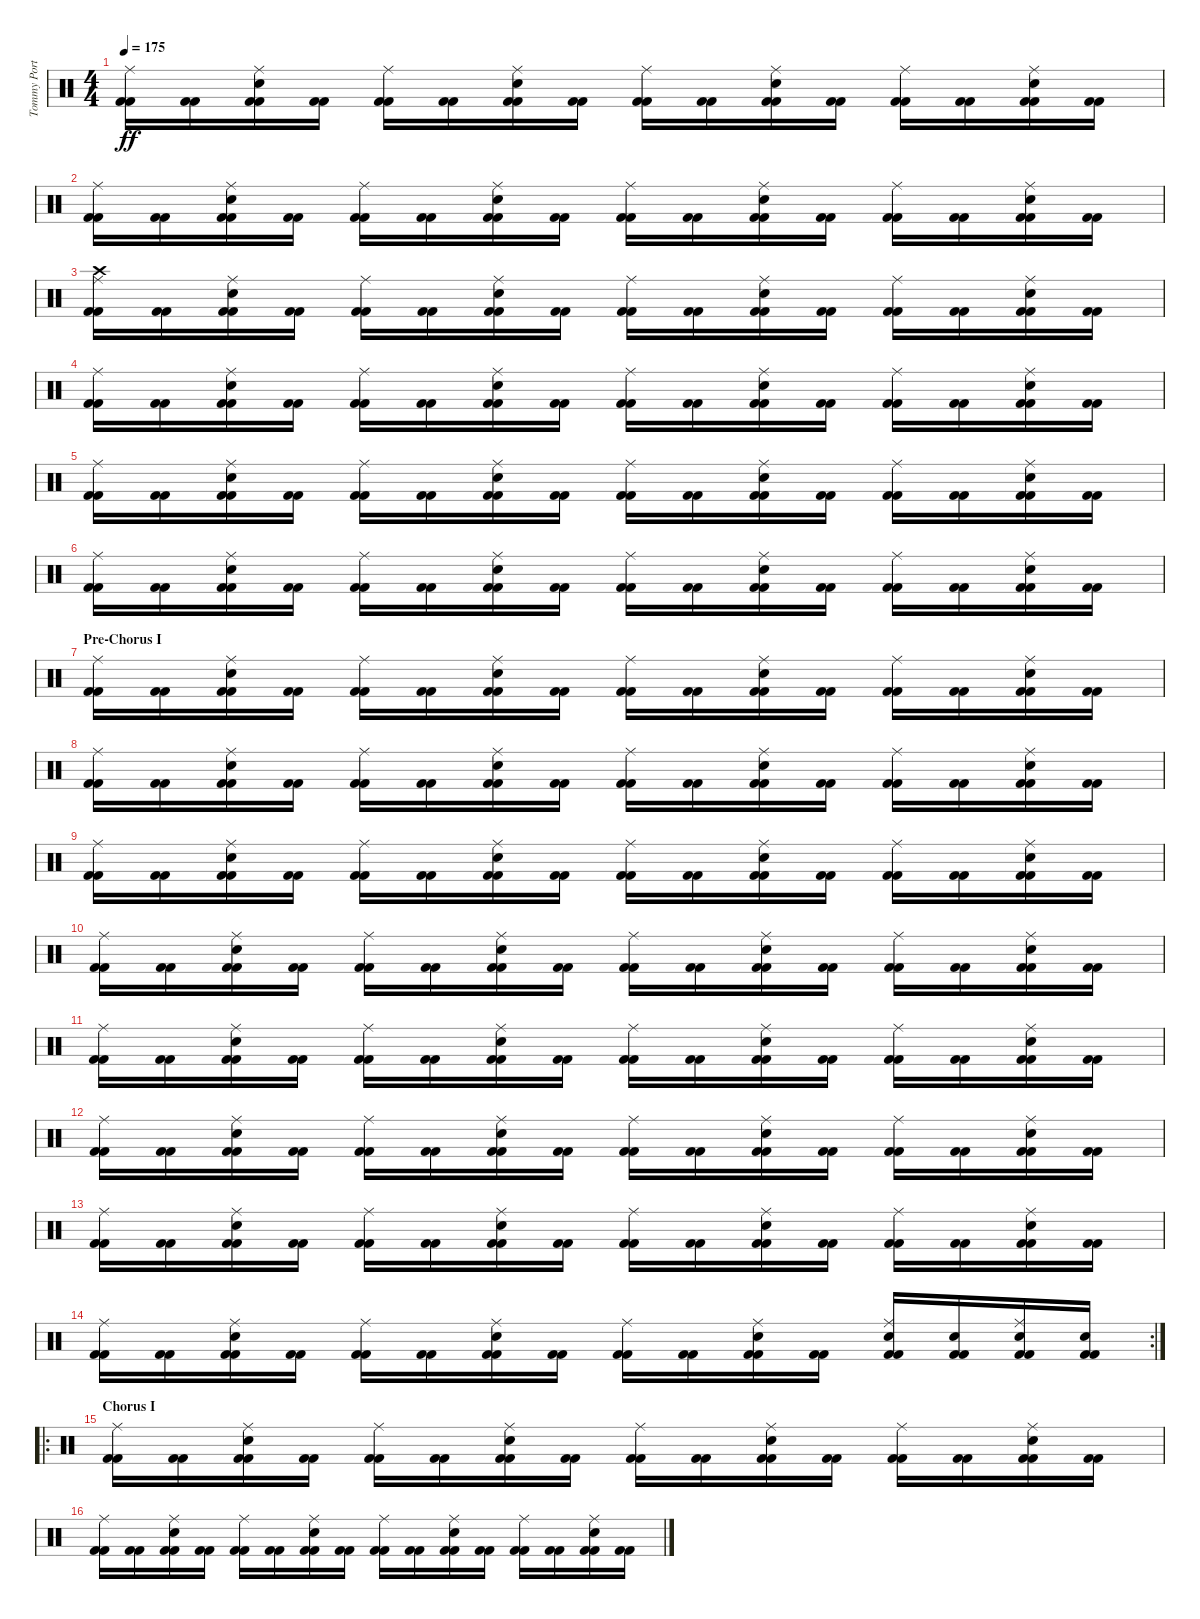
\track ("Tommy Portimo" "Tommy Port") {instrument percussion}
\staff {score}
\articulation defaults
\ts (4 4)
\tempo 175
\clef neutral
\ks c
("Kick (hit) 2" "Kick (hit) 2" "Ride (middle)").16{dy ff} ("Kick (hit) 2" "Kick (hit) 2").16 ("Kick (hit) 2" "Kick (hit) 2" "Ride (middle)" "Electric Snare (hit)").16 ("Kick (hit) 2" "Kick (hit) 2").16 ("Kick (hit) 2" "Kick (hit) 2" "Ride (middle)").16 ("Kick (hit) 2" "Kick (hit) 2").16 ("Kick (hit) 2" "Kick (hit) 2" "Ride (middle)" "Electric Snare (hit)").16 ("Kick (hit) 2" "Kick (hit) 2").16 ("Kick (hit) 2" "Kick (hit) 2" "Ride (middle)").16 ("Kick (hit) 2" "Kick (hit) 2").16 ("Kick (hit) 2" "Kick (hit) 2" "Ride (middle)" "Electric Snare (hit)").16 ("Kick (hit) 2" "Kick (hit) 2").16 ("Kick (hit) 2" "Kick (hit) 2" "Ride (middle)").16 ("Kick (hit) 2" "Kick (hit) 2").16 ("Kick (hit) 2" "Kick (hit) 2" "Ride (middle)" "Electric Snare (hit)").16 ("Kick (hit) 2" "Kick (hit) 2").16 |
("Kick (hit) 2" "Kick (hit) 2" "Ride (middle)").16 ("Kick (hit) 2" "Kick (hit) 2").16 ("Kick (hit) 2" "Kick (hit) 2" "Ride (middle)" "Electric Snare (hit)").16 ("Kick (hit) 2" "Kick (hit) 2").16 ("Kick (hit) 2" "Kick (hit) 2" "Ride (middle)").16 ("Kick (hit) 2" "Kick (hit) 2").16 ("Kick (hit) 2" "Kick (hit) 2" "Ride (middle)" "Electric Snare (hit)").16 ("Kick (hit) 2" "Kick (hit) 2").16 ("Kick (hit) 2" "Kick (hit) 2" "Ride (middle)").16 ("Kick (hit) 2" "Kick (hit) 2").16 ("Kick (hit) 2" "Kick (hit) 2" "Ride (middle)" "Electric Snare (hit)").16 ("Kick (hit) 2" "Kick (hit) 2").16 ("Kick (hit) 2" "Kick (hit) 2" "Ride (middle)").16 ("Kick (hit) 2" "Kick (hit) 2").16 ("Kick (hit) 2" "Kick (hit) 2" "Ride (middle)" "Electric Snare (hit)").16 ("Kick (hit) 2" "Kick (hit) 2").16 |
("Kick (hit) 2" "Kick (hit) 2" "Ride (middle)" "Crash high (hit)").16 ("Kick (hit) 2" "Kick (hit) 2").16 ("Kick (hit) 2" "Kick (hit) 2" "Ride (middle)" "Electric Snare (hit)").16 ("Kick (hit) 2" "Kick (hit) 2").16 ("Kick (hit) 2" "Kick (hit) 2" "Ride (middle)").16 ("Kick (hit) 2" "Kick (hit) 2").16 ("Kick (hit) 2" "Kick (hit) 2" "Ride (middle)" "Electric Snare (hit)").16 ("Kick (hit) 2" "Kick (hit) 2").16 ("Kick (hit) 2" "Kick (hit) 2" "Ride (middle)").16 ("Kick (hit) 2" "Kick (hit) 2").16 ("Kick (hit) 2" "Kick (hit) 2" "Ride (middle)" "Electric Snare (hit)").16 ("Kick (hit) 2" "Kick (hit) 2").16 ("Kick (hit) 2" "Kick (hit) 2" "Ride (middle)").16 ("Kick (hit) 2" "Kick (hit) 2").16 ("Kick (hit) 2" "Kick (hit) 2" "Ride (middle)" "Electric Snare (hit)").16 ("Kick (hit) 2" "Kick (hit) 2").16 |
("Kick (hit) 2" "Kick (hit) 2" "Ride (middle)").16 ("Kick (hit) 2" "Kick (hit) 2").16 ("Kick (hit) 2" "Kick (hit) 2" "Ride (middle)" "Electric Snare (hit)").16 ("Kick (hit) 2" "Kick (hit) 2").16 ("Kick (hit) 2" "Kick (hit) 2" "Ride (middle)").16 ("Kick (hit) 2" "Kick (hit) 2").16 ("Kick (hit) 2" "Kick (hit) 2" "Ride (middle)" "Electric Snare (hit)").16 ("Kick (hit) 2" "Kick (hit) 2").16 ("Kick (hit) 2" "Kick (hit) 2" "Ride (middle)").16 ("Kick (hit) 2" "Kick (hit) 2").16 ("Kick (hit) 2" "Kick (hit) 2" "Ride (middle)" "Electric Snare (hit)").16 ("Kick (hit) 2" "Kick (hit) 2").16 ("Kick (hit) 2" "Kick (hit) 2" "Ride (middle)").16 ("Kick (hit) 2" "Kick (hit) 2").16 ("Kick (hit) 2" "Kick (hit) 2" "Ride (middle)" "Electric Snare (hit)").16 ("Kick (hit) 2" "Kick (hit) 2").16 |
("Kick (hit) 2" "Kick (hit) 2" "Ride (middle)").16 ("Kick (hit) 2" "Kick (hit) 2").16 ("Kick (hit) 2" "Kick (hit) 2" "Ride (middle)" "Electric Snare (hit)").16 ("Kick (hit) 2" "Kick (hit) 2").16 ("Kick (hit) 2" "Kick (hit) 2" "Ride (middle)").16 ("Kick (hit) 2" "Kick (hit) 2").16 ("Kick (hit) 2" "Kick (hit) 2" "Ride (middle)" "Electric Snare (hit)").16 ("Kick (hit) 2" "Kick (hit) 2").16 ("Kick (hit) 2" "Kick (hit) 2" "Ride (middle)").16 ("Kick (hit) 2" "Kick (hit) 2").16 ("Kick (hit) 2" "Kick (hit) 2" "Ride (middle)" "Electric Snare (hit)").16 ("Kick (hit) 2" "Kick (hit) 2").16 ("Kick (hit) 2" "Kick (hit) 2" "Ride (middle)").16 ("Kick (hit) 2" "Kick (hit) 2").16 ("Kick (hit) 2" "Kick (hit) 2" "Ride (middle)" "Electric Snare (hit)").16 ("Kick (hit) 2" "Kick (hit) 2").16 |
("Kick (hit) 2" "Kick (hit) 2" "Ride (middle)").16 ("Kick (hit) 2" "Kick (hit) 2").16 ("Kick (hit) 2" "Kick (hit) 2" "Ride (middle)" "Electric Snare (hit)").16 ("Kick (hit) 2" "Kick (hit) 2").16 ("Kick (hit) 2" "Kick (hit) 2" "Ride (middle)").16 ("Kick (hit) 2" "Kick (hit) 2").16 ("Kick (hit) 2" "Kick (hit) 2" "Ride (middle)" "Electric Snare (hit)").16 ("Kick (hit) 2" "Kick (hit) 2").16 ("Kick (hit) 2" "Kick (hit) 2" "Ride (middle)").16 ("Kick (hit) 2" "Kick (hit) 2").16 ("Kick (hit) 2" "Kick (hit) 2" "Ride (middle)" "Electric Snare (hit)").16 ("Kick (hit) 2" "Kick (hit) 2").16 ("Kick (hit) 2" "Kick (hit) 2" "Ride (middle)").16 ("Kick (hit) 2" "Kick (hit) 2").16 ("Kick (hit) 2" "Kick (hit) 2" "Ride (middle)" "Electric Snare (hit)").16 ("Kick (hit) 2" "Kick (hit) 2").16 |
\section ("" "Pre-Chorus I")
("Kick (hit) 2" "Kick (hit) 2" "Ride (middle)").16 ("Kick (hit) 2" "Kick (hit) 2").16 ("Kick (hit) 2" "Kick (hit) 2" "Ride (middle)" "Electric Snare (hit)").16 ("Kick (hit) 2" "Kick (hit) 2").16 ("Kick (hit) 2" "Kick (hit) 2" "Ride (middle)").16 ("Kick (hit) 2" "Kick (hit) 2").16 ("Kick (hit) 2" "Kick (hit) 2" "Ride (middle)" "Electric Snare (hit)").16 ("Kick (hit) 2" "Kick (hit) 2").16 ("Kick (hit) 2" "Kick (hit) 2" "Ride (middle)").16 ("Kick (hit) 2" "Kick (hit) 2").16 ("Kick (hit) 2" "Kick (hit) 2" "Ride (middle)" "Electric Snare (hit)").16 ("Kick (hit) 2" "Kick (hit) 2").16 ("Kick (hit) 2" "Kick (hit) 2" "Ride (middle)").16 ("Kick (hit) 2" "Kick (hit) 2").16 ("Kick (hit) 2" "Kick (hit) 2" "Ride (middle)" "Electric Snare (hit)").16 ("Kick (hit) 2" "Kick (hit) 2").16 |
("Kick (hit) 2" "Kick (hit) 2" "Ride (middle)").16 ("Kick (hit) 2" "Kick (hit) 2").16 ("Kick (hit) 2" "Kick (hit) 2" "Ride (middle)" "Electric Snare (hit)").16 ("Kick (hit) 2" "Kick (hit) 2").16 ("Kick (hit) 2" "Kick (hit) 2" "Ride (middle)").16 ("Kick (hit) 2" "Kick (hit) 2").16 ("Kick (hit) 2" "Kick (hit) 2" "Ride (middle)" "Electric Snare (hit)").16 ("Kick (hit) 2" "Kick (hit) 2").16 ("Kick (hit) 2" "Kick (hit) 2" "Ride (middle)").16 ("Kick (hit) 2" "Kick (hit) 2").16 ("Kick (hit) 2" "Kick (hit) 2" "Ride (middle)" "Electric Snare (hit)").16 ("Kick (hit) 2" "Kick (hit) 2").16 ("Kick (hit) 2" "Kick (hit) 2" "Ride (middle)").16 ("Kick (hit) 2" "Kick (hit) 2").16 ("Kick (hit) 2" "Kick (hit) 2" "Ride (middle)" "Electric Snare (hit)").16 ("Kick (hit) 2" "Kick (hit) 2").16 |
("Kick (hit) 2" "Kick (hit) 2" "Ride (middle)").16 ("Kick (hit) 2" "Kick (hit) 2").16 ("Kick (hit) 2" "Kick (hit) 2" "Ride (middle)" "Electric Snare (hit)").16 ("Kick (hit) 2" "Kick (hit) 2").16 ("Kick (hit) 2" "Kick (hit) 2" "Ride (middle)").16 ("Kick (hit) 2" "Kick (hit) 2").16 ("Kick (hit) 2" "Kick (hit) 2" "Ride (middle)" "Electric Snare (hit)").16 ("Kick (hit) 2" "Kick (hit) 2").16 ("Kick (hit) 2" "Kick (hit) 2" "Ride (middle)").16 ("Kick (hit) 2" "Kick (hit) 2").16 ("Kick (hit) 2" "Kick (hit) 2" "Ride (middle)" "Electric Snare (hit)").16 ("Kick (hit) 2" "Kick (hit) 2").16 ("Kick (hit) 2" "Kick (hit) 2" "Ride (middle)").16 ("Kick (hit) 2" "Kick (hit) 2").16 ("Kick (hit) 2" "Kick (hit) 2" "Ride (middle)" "Electric Snare (hit)").16 ("Kick (hit) 2" "Kick (hit) 2").16 |
("Kick (hit) 2" "Kick (hit) 2" "Ride (middle)").16 ("Kick (hit) 2" "Kick (hit) 2").16 ("Kick (hit) 2" "Kick (hit) 2" "Ride (middle)" "Electric Snare (hit)").16 ("Kick (hit) 2" "Kick (hit) 2").16 ("Kick (hit) 2" "Kick (hit) 2" "Ride (middle)").16 ("Kick (hit) 2" "Kick (hit) 2").16 ("Kick (hit) 2" "Kick (hit) 2" "Ride (middle)" "Electric Snare (hit)").16 ("Kick (hit) 2" "Kick (hit) 2").16 ("Kick (hit) 2" "Kick (hit) 2" "Ride (middle)").16 ("Kick (hit) 2" "Kick (hit) 2").16 ("Kick (hit) 2" "Kick (hit) 2" "Ride (middle)" "Electric Snare (hit)").16 ("Kick (hit) 2" "Kick (hit) 2").16 ("Kick (hit) 2" "Kick (hit) 2" "Ride (middle)").16 ("Kick (hit) 2" "Kick (hit) 2").16 ("Kick (hit) 2" "Kick (hit) 2" "Ride (middle)" "Electric Snare (hit)").16 ("Kick (hit) 2" "Kick (hit) 2").16 |
("Kick (hit) 2" "Kick (hit) 2" "Ride (middle)").16 ("Kick (hit) 2" "Kick (hit) 2").16 ("Kick (hit) 2" "Kick (hit) 2" "Ride (middle)" "Electric Snare (hit)").16 ("Kick (hit) 2" "Kick (hit) 2").16 ("Kick (hit) 2" "Kick (hit) 2" "Ride (middle)").16 ("Kick (hit) 2" "Kick (hit) 2").16 ("Kick (hit) 2" "Kick (hit) 2" "Ride (middle)" "Electric Snare (hit)").16 ("Kick (hit) 2" "Kick (hit) 2").16 ("Kick (hit) 2" "Kick (hit) 2" "Ride (middle)").16 ("Kick (hit) 2" "Kick (hit) 2").16 ("Kick (hit) 2" "Kick (hit) 2" "Ride (middle)" "Electric Snare (hit)").16 ("Kick (hit) 2" "Kick (hit) 2").16 ("Kick (hit) 2" "Kick (hit) 2" "Ride (middle)").16 ("Kick (hit) 2" "Kick (hit) 2").16 ("Kick (hit) 2" "Kick (hit) 2" "Ride (middle)" "Electric Snare (hit)").16 ("Kick (hit) 2" "Kick (hit) 2").16 |
("Kick (hit) 2" "Kick (hit) 2" "Ride (middle)").16 ("Kick (hit) 2" "Kick (hit) 2").16 ("Kick (hit) 2" "Kick (hit) 2" "Ride (middle)" "Electric Snare (hit)").16 ("Kick (hit) 2" "Kick (hit) 2").16 ("Kick (hit) 2" "Kick (hit) 2" "Ride (middle)").16 ("Kick (hit) 2" "Kick (hit) 2").16 ("Kick (hit) 2" "Kick (hit) 2" "Ride (middle)" "Electric Snare (hit)").16 ("Kick (hit) 2" "Kick (hit) 2").16 ("Kick (hit) 2" "Kick (hit) 2" "Ride (middle)").16 ("Kick (hit) 2" "Kick (hit) 2").16 ("Kick (hit) 2" "Kick (hit) 2" "Ride (middle)" "Electric Snare (hit)").16 ("Kick (hit) 2" "Kick (hit) 2").16 ("Kick (hit) 2" "Kick (hit) 2" "Ride (middle)").16 ("Kick (hit) 2" "Kick (hit) 2").16 ("Kick (hit) 2" "Kick (hit) 2" "Ride (middle)" "Electric Snare (hit)").16 ("Kick (hit) 2" "Kick (hit) 2").16 |
("Kick (hit) 2" "Kick (hit) 2" "Ride (middle)").16 ("Kick (hit) 2" "Kick (hit) 2").16 ("Kick (hit) 2" "Kick (hit) 2" "Ride (middle)" "Electric Snare (hit)").16 ("Kick (hit) 2" "Kick (hit) 2").16 ("Kick (hit) 2" "Kick (hit) 2" "Ride (middle)").16 ("Kick (hit) 2" "Kick (hit) 2").16 ("Kick (hit) 2" "Kick (hit) 2" "Ride (middle)" "Electric Snare (hit)").16 ("Kick (hit) 2" "Kick (hit) 2").16 ("Kick (hit) 2" "Kick (hit) 2" "Ride (middle)").16 ("Kick (hit) 2" "Kick (hit) 2").16 ("Kick (hit) 2" "Kick (hit) 2" "Ride (middle)" "Electric Snare (hit)").16 ("Kick (hit) 2" "Kick (hit) 2").16 ("Kick (hit) 2" "Kick (hit) 2" "Ride (middle)").16 ("Kick (hit) 2" "Kick (hit) 2").16 ("Kick (hit) 2" "Kick (hit) 2" "Ride (middle)" "Electric Snare (hit)").16 ("Kick (hit) 2" "Kick (hit) 2").16 |
\rc 2
("Kick (hit) 2" "Kick (hit) 2" "Ride (middle)").16 ("Kick (hit) 2" "Kick (hit) 2").16 ("Kick (hit) 2" "Kick (hit) 2" "Ride (middle)" "Electric Snare (hit)").16 ("Kick (hit) 2" "Kick (hit) 2").16 ("Kick (hit) 2" "Kick (hit) 2" "Ride (middle)").16 ("Kick (hit) 2" "Kick (hit) 2").16 ("Kick (hit) 2" "Kick (hit) 2" "Ride (middle)" "Electric Snare (hit)").16 ("Kick (hit) 2" "Kick (hit) 2").16 ("Kick (hit) 2" "Kick (hit) 2" "Ride (middle)").16 ("Kick (hit) 2" "Kick (hit) 2").16 ("Kick (hit) 2" "Kick (hit) 2" "Ride (middle)" "Electric Snare (hit)").16 ("Kick (hit) 2" "Kick (hit) 2").16 ("Kick (hit) 2" "Kick (hit) 2" "Ride (middle)" "Electric Snare (hit)").16 ("Kick (hit) 2" "Kick (hit) 2" "Electric Snare (hit)").16 ("Kick (hit) 2" "Kick (hit) 2" "Ride (middle)" "Electric Snare (hit)").16 ("Kick (hit) 2" "Kick (hit) 2" "Electric Snare (hit)").16 |
\ro
\section ("" "Chorus I")
("Kick (hit) 2" "Kick (hit) 2" "Ride (middle)").16 ("Kick (hit) 2" "Kick (hit) 2").16 ("Kick (hit) 2" "Kick (hit) 2" "Ride (middle)" "Electric Snare (hit)").16 ("Kick (hit) 2" "Kick (hit) 2").16 ("Kick (hit) 2" "Kick (hit) 2" "Ride (middle)").16 ("Kick (hit) 2" "Kick (hit) 2").16 ("Kick (hit) 2" "Kick (hit) 2" "Ride (middle)" "Electric Snare (hit)").16 ("Kick (hit) 2" "Kick (hit) 2").16 ("Kick (hit) 2" "Kick (hit) 2" "Ride (middle)").16 ("Kick (hit) 2" "Kick (hit) 2").16 ("Kick (hit) 2" "Kick (hit) 2" "Ride (middle)" "Electric Snare (hit)").16 ("Kick (hit) 2" "Kick (hit) 2").16 ("Kick (hit) 2" "Kick (hit) 2" "Ride (middle)").16 ("Kick (hit) 2" "Kick (hit) 2").16 ("Kick (hit) 2" "Kick (hit) 2" "Ride (middle)" "Electric Snare (hit)").16 ("Kick (hit) 2" "Kick (hit) 2").16 |
("Kick (hit) 2" "Kick (hit) 2" "Ride (middle)").16 ("Kick (hit) 2" "Kick (hit) 2").16 ("Kick (hit) 2" "Kick (hit) 2" "Ride (middle)" "Electric Snare (hit)").16 ("Kick (hit) 2" "Kick (hit) 2").16 ("Kick (hit) 2" "Kick (hit) 2" "Ride (middle)").16 ("Kick (hit) 2" "Kick (hit) 2").16 ("Kick (hit) 2" "Kick (hit) 2" "Ride (middle)" "Electric Snare (hit)").16 ("Kick (hit) 2" "Kick (hit) 2").16 ("Kick (hit) 2" "Kick (hit) 2" "Ride (middle)").16 ("Kick (hit) 2" "Kick (hit) 2").16 ("Kick (hit) 2" "Kick (hit) 2" "Ride (middle)" "Electric Snare (hit)").16 ("Kick (hit) 2" "Kick (hit) 2").16 ("Kick (hit) 2" "Kick (hit) 2" "Ride (middle)").16 ("Kick (hit) 2" "Kick (hit) 2").16 ("Kick (hit) 2" "Kick (hit) 2" "Ride (middle)" "Electric Snare (hit)").16 ("Kick (hit) 2" "Kick (hit) 2").16
